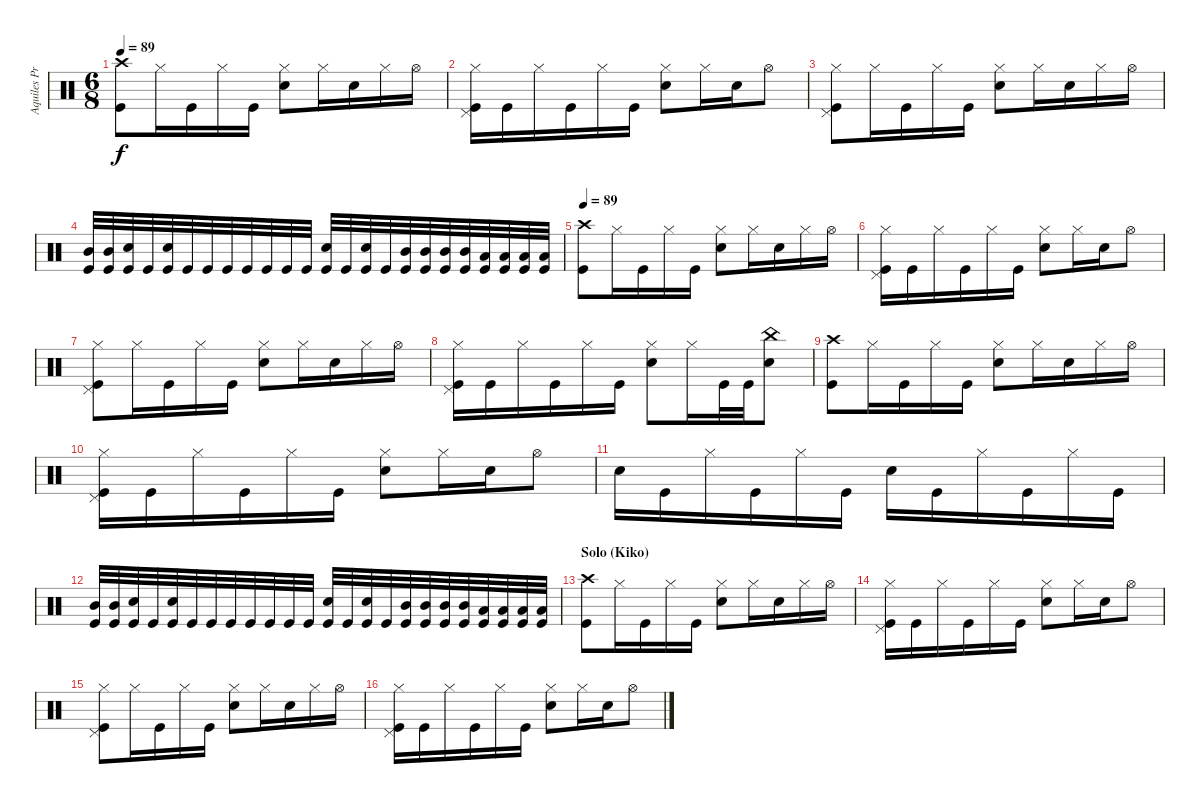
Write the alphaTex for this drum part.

\track ("Aquiles Priester" "Aquiles Pr") {instrument percussion}
\staff {score}
\articulation defaults
\ts (6 8)
\tempo 89
\clef neutral
\ks c
("Crash high (hit)" "Kick (hit)").8{dy f} "Hi-Hat (closed)".16 "Kick (hit)".16 "Hi-Hat (closed)".16 "Kick (hit)".16 ("Hi-Hat (closed)" "Electric Snare (hit)").8 "Hi-Hat (closed)".16 "Electric Snare (hit)".16 "Hi-Hat (closed)".16 "Hi-Hat (open)".16 |
("Hi-Hat (closed)" "Pedal Hi-Hat (hit)" "Kick (hit)").16 "Kick (hit)".16 "Hi-Hat (closed)".16 "Kick (hit)".16 "Hi-Hat (closed)".16 "Kick (hit)".16 ("Hi-Hat (closed)" "Electric Snare (hit)").8 "Hi-Hat (closed)".16 "Electric Snare (hit)".16 "Hi-Hat (open)".8 |
("Hi-Hat (closed)" "Pedal Hi-Hat (hit)" "Kick (hit)").8 "Hi-Hat (closed)".16 "Kick (hit)".16 "Hi-Hat (closed)".16 "Kick (hit)".16 ("Hi-Hat (closed)" "Electric Snare (hit)").8 "Hi-Hat (closed)".16 "Electric Snare (hit)".16 "Hi-Hat (closed)".16 "Hi-Hat (open)".16 |
("Mid Tom (hit)" "Kick (hit)").32 ("Mid Tom (hit)" "Kick (hit)").32 ("Electric Snare (hit)" "Kick (hit)").32 "Kick (hit)".32 ("Electric Snare (hit)" "Kick (hit)").32 "Kick (hit)".32 "Kick (hit)".32 "Kick (hit)".32 "Kick (hit)".32 "Kick (hit)".32 "Kick (hit)".32 "Kick (hit)".32 ("Electric Snare (hit)" "Kick (hit)").32 "Kick (hit)".32 ("Electric Snare (hit)" "Kick (hit)").32 "Kick (hit)".32 ("Mid Tom (hit)" "Kick (hit)").32 ("Mid Tom (hit)" "Kick (hit)").32 ("Mid Tom (hit)" "Kick (hit)").32 ("Mid Tom (hit)" "Kick (hit)").32 ("Low Tom (hit)" "Kick (hit)").32 ("Low Tom (hit)" "Kick (hit)").32 ("Low Tom (hit)" "Kick (hit)").32 ("Low Tom (hit)" "Kick (hit)").32 |
\tempo 89
("Crash high (hit)" "Kick (hit)").8 "Hi-Hat (closed)".16 "Kick (hit)".16 "Hi-Hat (closed)".16 "Kick (hit)".16 ("Hi-Hat (closed)" "Electric Snare (hit)").8 "Hi-Hat (closed)".16 "Electric Snare (hit)".16 "Hi-Hat (closed)".16 "Hi-Hat (open)".16 |
("Hi-Hat (closed)" "Pedal Hi-Hat (hit)" "Kick (hit)").16 "Kick (hit)".16 "Hi-Hat (closed)".16 "Kick (hit)".16 "Hi-Hat (closed)".16 "Kick (hit)".16 ("Hi-Hat (closed)" "Electric Snare (hit)").8 "Hi-Hat (closed)".16 "Electric Snare (hit)".16 "Hi-Hat (open)".8 |
("Hi-Hat (closed)" "Pedal Hi-Hat (hit)" "Kick (hit)").8 "Hi-Hat (closed)".16 "Kick (hit)".16 "Hi-Hat (closed)".16 "Kick (hit)".16 ("Hi-Hat (closed)" "Electric Snare (hit)").8 "Hi-Hat (closed)".16 "Electric Snare (hit)".16 "Hi-Hat (closed)".16 "Hi-Hat (open)".16 |
("Hi-Hat (closed)" "Pedal Hi-Hat (hit)" "Kick (hit)").16 "Kick (hit)".16 "Hi-Hat (closed)".16 "Kick (hit)".16 "Hi-Hat (closed)".16 "Kick (hit)".16 ("Hi-Hat (closed)" "Electric Snare (hit)").8 "Hi-Hat (closed)".16 "Kick (hit)".32 "Kick (hit)".32 ("China (hit)" "Electric Snare (hit)").8 |
("Crash high (hit)" "Kick (hit)").8 "Hi-Hat (closed)".16 "Kick (hit)".16 "Hi-Hat (closed)".16 "Kick (hit)".16 ("Hi-Hat (closed)" "Electric Snare (hit)").8 "Hi-Hat (closed)".16 "Electric Snare (hit)".16 "Hi-Hat (closed)".16 "Hi-Hat (open)".16 |
("Hi-Hat (closed)" "Pedal Hi-Hat (hit)" "Kick (hit)").16 "Kick (hit)".16 "Hi-Hat (closed)".16 "Kick (hit)".16 "Hi-Hat (closed)".16 "Kick (hit)".16 ("Hi-Hat (closed)" "Electric Snare (hit)").8 "Hi-Hat (closed)".16 "Electric Snare (hit)".16 "Hi-Hat (open)".8 |
"Electric Snare (hit)".16 "Kick (hit)".16 "Hi-Hat (closed)".16 "Kick (hit)".16 "Hi-Hat (closed)".16 "Kick (hit)".16 "Electric Snare (hit)".16 "Kick (hit)".16 "Hi-Hat (closed)".16 "Kick (hit)".16 "Hi-Hat (closed)".16 "Kick (hit)".16 |
("Mid Tom (hit)" "Kick (hit)").32 ("Mid Tom (hit)" "Kick (hit)").32 ("Electric Snare (hit)" "Kick (hit)").32 "Kick (hit)".32 ("Electric Snare (hit)" "Kick (hit)").32 "Kick (hit)".32 "Kick (hit)".32 "Kick (hit)".32 "Kick (hit)".32 "Kick (hit)".32 "Kick (hit)".32 "Kick (hit)".32 ("Electric Snare (hit)" "Kick (hit)").32 "Kick (hit)".32 ("Electric Snare (hit)" "Kick (hit)").32 "Kick (hit)".32 ("Mid Tom (hit)" "Kick (hit)").32 ("Mid Tom (hit)" "Kick (hit)").32 ("Mid Tom (hit)" "Kick (hit)").32 ("Mid Tom (hit)" "Kick (hit)").32 ("Low Tom (hit)" "Kick (hit)").32 ("Low Tom (hit)" "Kick (hit)").32 ("Low Tom (hit)" "Kick (hit)").32 ("Low Tom (hit)" "Kick (hit)").32 |
\section ("" "Solo (Kiko)")
("Crash high (hit)" "Kick (hit)").8 "Hi-Hat (closed)".16 "Kick (hit)".16 "Hi-Hat (closed)".16 "Kick (hit)".16 ("Hi-Hat (closed)" "Electric Snare (hit)").8 "Hi-Hat (closed)".16 "Electric Snare (hit)".16 "Hi-Hat (closed)".16 "Hi-Hat (open)".16 |
("Hi-Hat (closed)" "Pedal Hi-Hat (hit)" "Kick (hit)").16 "Kick (hit)".16 "Hi-Hat (closed)".16 "Kick (hit)".16 "Hi-Hat (closed)".16 "Kick (hit)".16 ("Hi-Hat (closed)" "Electric Snare (hit)").8 "Hi-Hat (closed)".16 "Electric Snare (hit)".16 "Hi-Hat (open)".8 |
("Hi-Hat (closed)" "Pedal Hi-Hat (hit)" "Kick (hit)").8 "Hi-Hat (closed)".16 "Kick (hit)".16 "Hi-Hat (closed)".16 "Kick (hit)".16 ("Hi-Hat (closed)" "Electric Snare (hit)").8 "Hi-Hat (closed)".16 "Electric Snare (hit)".16 "Hi-Hat (closed)".16 "Hi-Hat (open)".16 |
("Hi-Hat (closed)" "Pedal Hi-Hat (hit)" "Kick (hit)").16 "Kick (hit)".16 "Hi-Hat (closed)".16 "Kick (hit)".16 "Hi-Hat (closed)".16 "Kick (hit)".16 ("Hi-Hat (closed)" "Electric Snare (hit)").8 "Hi-Hat (closed)".16 "Electric Snare (hit)".16 "Hi-Hat (open)".8
